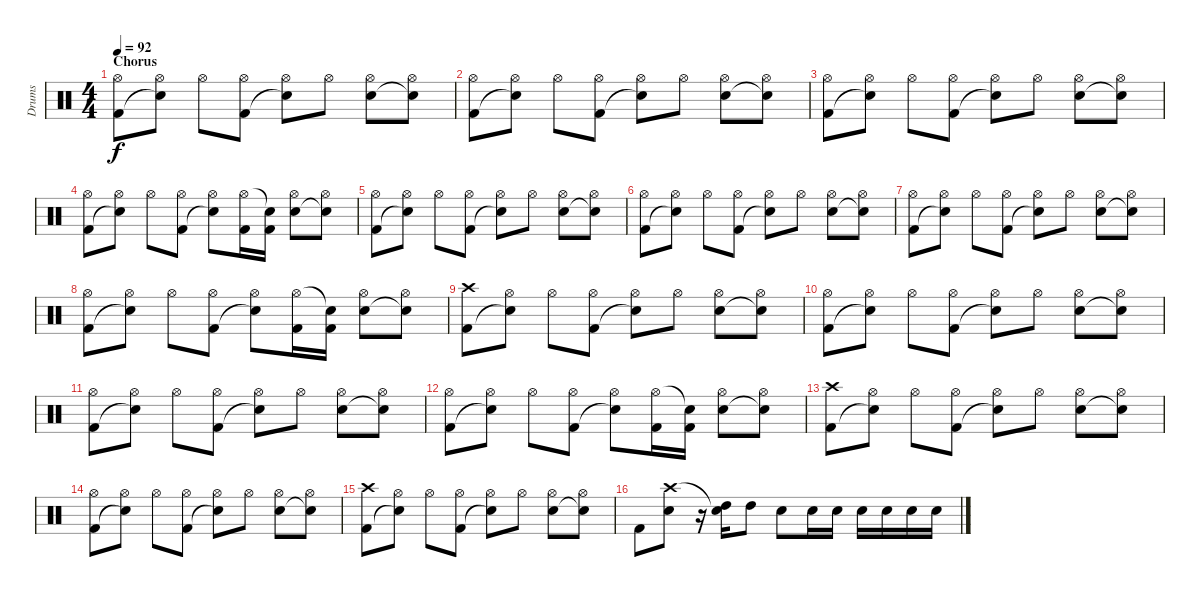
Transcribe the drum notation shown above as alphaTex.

\track ("Drums" "Drums") {instrument percussion}
\staff {score}
\articulation defaults
\ts (4 4)
\section ("" "Chorus")
\tempo 92
\clef neutral
\ks c
("Hi-Hat (open)" "Kick (hit) 2").8{dy f} ("Hi-Hat (open)" "Snare (hit)"{t}).8 "Hi-Hat (open)".8 ("Hi-Hat (open)" "Kick (hit) 2").8 ("Hi-Hat (open)" "Snare (hit)"{t}).8 "Hi-Hat (open)".8 ("Hi-Hat (open)" "Snare (hit) 2").8 ("Hi-Hat (open)" "Snare (hit)"{t}).8 |
("Hi-Hat (open)" "Kick (hit) 2").8 ("Hi-Hat (open)" "Snare (hit)"{t}).8 "Hi-Hat (open)".8 ("Hi-Hat (open)" "Kick (hit) 2").8 ("Hi-Hat (open)" "Snare (hit)"{t}).8 "Hi-Hat (open)".8 ("Hi-Hat (open)" "Snare (hit) 2").8 ("Hi-Hat (open)" "Snare (hit)"{t}).8 |
("Hi-Hat (open)" "Kick (hit) 2").8 ("Hi-Hat (open)" "Snare (hit)"{t}).8 "Hi-Hat (open)".8 ("Hi-Hat (open)" "Kick (hit) 2").8 ("Hi-Hat (open)" "Snare (hit)"{t}).8 "Hi-Hat (open)".8 ("Hi-Hat (open)" "Snare (hit) 2").8 ("Hi-Hat (open)" "Snare (hit)"{t}).8 |
("Hi-Hat (open)" "Kick (hit) 2").8 ("Hi-Hat (open)" "Snare (hit)"{t}).8 "Hi-Hat (open)".8 ("Hi-Hat (open)" "Kick (hit) 2").8 ("Hi-Hat (open)" "Snare (hit)"{t}).8 ("Hi-Hat (open)" "Kick (hit) 2").16 ("Snare (hit)"{t} "Kick (hit) 2").16 ("Hi-Hat (open)" "Snare (hit) 2").8 ("Hi-Hat (open)" "Snare (hit)"{t}).8 |
("Hi-Hat (open)" "Kick (hit) 2").8 ("Hi-Hat (open)" "Snare (hit)"{t}).8 "Hi-Hat (open)".8 ("Hi-Hat (open)" "Kick (hit) 2").8 ("Hi-Hat (open)" "Snare (hit)"{t}).8 "Hi-Hat (open)".8 ("Hi-Hat (open)" "Snare (hit) 2").8 ("Hi-Hat (open)" "Snare (hit)"{t}).8 |
("Hi-Hat (open)" "Kick (hit) 2").8 ("Hi-Hat (open)" "Snare (hit)"{t}).8 "Hi-Hat (open)".8 ("Hi-Hat (open)" "Kick (hit) 2").8 ("Hi-Hat (open)" "Snare (hit)"{t}).8 "Hi-Hat (open)".8 ("Hi-Hat (open)" "Snare (hit) 2").8 ("Hi-Hat (open)" "Snare (hit)"{t}).8 |
("Hi-Hat (open)" "Kick (hit) 2").8 ("Hi-Hat (open)" "Snare (hit)"{t}).8 "Hi-Hat (open)".8 ("Hi-Hat (open)" "Kick (hit) 2").8 ("Hi-Hat (open)" "Snare (hit)"{t}).8 "Hi-Hat (open)".8 ("Hi-Hat (open)" "Snare (hit) 2").8 ("Hi-Hat (open)" "Snare (hit)"{t}).8 |
("Hi-Hat (open)" "Kick (hit) 2").8 ("Hi-Hat (open)" "Snare (hit)"{t}).8 "Hi-Hat (open)".8 ("Hi-Hat (open)" "Kick (hit) 2").8 ("Hi-Hat (open)" "Snare (hit)"{t}).8 ("Hi-Hat (open)" "Kick (hit) 2").16 ("Snare (hit)"{t} "Kick (hit) 2").16 ("Hi-Hat (open)" "Snare (hit) 2").8 ("Hi-Hat (open)" "Snare (hit)"{t}).8 |
("Crash high (hit)" "Kick (hit) 2").8 ("Hi-Hat (open)" "Snare (hit)"{t}).8 "Hi-Hat (open)".8 ("Hi-Hat (open)" "Kick (hit) 2").8 ("Hi-Hat (open)" "Snare (hit)"{t}).8 "Hi-Hat (open)".8 ("Hi-Hat (open)" "Snare (hit) 2").8 ("Hi-Hat (open)" "Snare (hit)"{t}).8 |
("Hi-Hat (open)" "Kick (hit) 2").8 ("Hi-Hat (open)" "Snare (hit)"{t}).8 "Hi-Hat (open)".8 ("Hi-Hat (open)" "Kick (hit) 2").8 ("Hi-Hat (open)" "Snare (hit)"{t}).8 "Hi-Hat (open)".8 ("Hi-Hat (open)" "Snare (hit) 2").8 ("Hi-Hat (open)" "Snare (hit)"{t}).8 |
("Hi-Hat (open)" "Kick (hit) 2").8 ("Hi-Hat (open)" "Snare (hit)"{t}).8 "Hi-Hat (open)".8 ("Hi-Hat (open)" "Kick (hit) 2").8 ("Hi-Hat (open)" "Snare (hit)"{t}).8 "Hi-Hat (open)".8 ("Hi-Hat (open)" "Snare (hit) 2").8 ("Hi-Hat (open)" "Snare (hit)"{t}).8 |
("Hi-Hat (open)" "Kick (hit) 2").8 ("Hi-Hat (open)" "Snare (hit)"{t}).8 "Hi-Hat (open)".8 ("Hi-Hat (open)" "Kick (hit) 2").8 ("Hi-Hat (open)" "Snare (hit)"{t}).8 ("Hi-Hat (open)" "Kick (hit) 2").16 ("Snare (hit)"{t} "Kick (hit) 2").16 ("Hi-Hat (open)" "Snare (hit) 2").8 ("Hi-Hat (open)" "Snare (hit)"{t}).8 |
("Crash high (hit)" "Kick (hit) 2").8 ("Hi-Hat (open)" "Snare (hit)"{t}).8 "Hi-Hat (open)".8 ("Hi-Hat (open)" "Kick (hit) 2").8 ("Hi-Hat (open)" "Snare (hit)"{t}).8 "Hi-Hat (open)".8 ("Hi-Hat (open)" "Snare (hit) 2").8 ("Hi-Hat (open)" "Snare (hit)"{t}).8 |
("Hi-Hat (open)" "Kick (hit) 2").8 ("Hi-Hat (open)" "Snare (hit)"{t}).8 "Hi-Hat (open)".8 ("Hi-Hat (open)" "Kick (hit) 2").8 ("Hi-Hat (open)" "Snare (hit)"{t}).8 "Hi-Hat (open)".8 ("Hi-Hat (open)" "Snare (hit) 2").8 ("Hi-Hat (open)" "Snare (hit)"{t}).8 |
("Crash high (hit)" "Kick (hit) 2").8 ("Hi-Hat (open)" "Snare (hit)"{t}).8 "Hi-Hat (open)".8 ("Hi-Hat (open)" "Kick (hit) 2").8 ("Hi-Hat (open)" "Snare (hit)"{t}).8 "Hi-Hat (open)".8 ("Hi-Hat (open)" "Snare (hit) 2").8 ("Hi-Hat (open)" "Snare (hit)"{t}).8 |
"Kick (hit) 2".8 ("Crash high (hit)" "Snare (hit) 2").8 r.16 ("Snare (hit)"{t} "High Tom (hit)").16 "High Tom (hit)".8 "Snare (hit) 2".8 "Snare (hit) 2".16 "Snare (hit) 2".16 "Snare (hit) 2".16 "Snare (hit) 2".16 "Snare (hit) 2".16 "Snare (hit) 2".16
